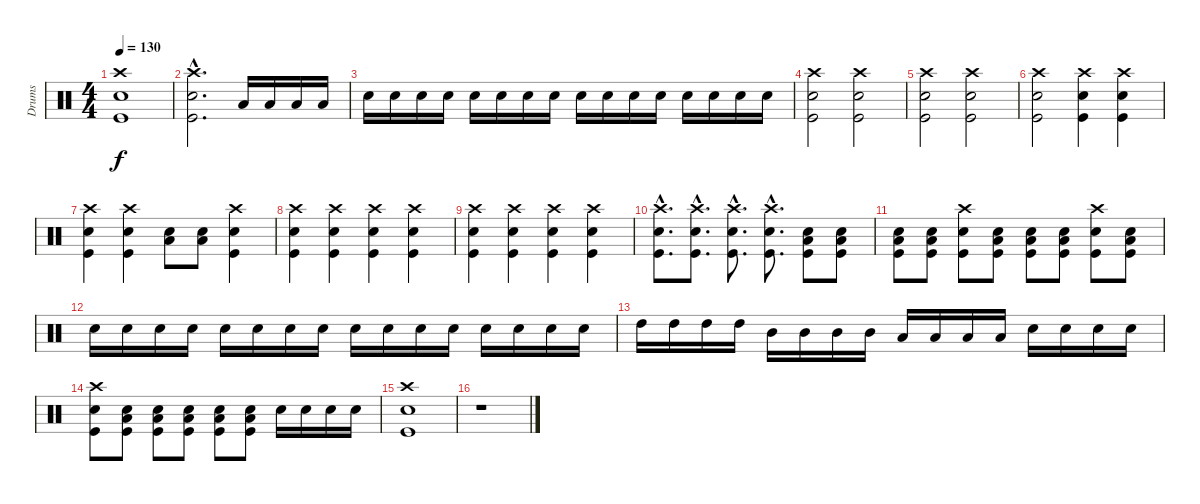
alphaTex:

\track ("Drums" "Drums") {instrument percussion}
\staff {score}
\articulation defaults
\ts (4 4)
\tempo 130
\clef neutral
\ks c
("Crash high (hit)" "Snare (hit) 2" "Kick (hit)").1{dy f} |
("Crash high (hit)"{hac} "Snare (hit) 2"{hac} "Kick (hit)"{hac}).2{d} "Low Tom (hit)".16 "Low Tom (hit)".16 "Low Tom (hit)".16 "Low Tom (hit)".16 |
"Snare (hit) 2".16 "Snare (hit) 2".16 "Snare (hit) 2".16 "Snare (hit) 2".16 "Snare (hit) 2".16 "Snare (hit) 2".16 "Snare (hit) 2".16 "Snare (hit) 2".16 "Snare (hit) 2".16 "Snare (hit) 2".16 "Snare (hit) 2".16 "Snare (hit) 2".16 "Snare (hit) 2".16 "Snare (hit) 2".16 "Snare (hit) 2".16 "Snare (hit) 2".16 |
("Crash high (hit)" "Snare (hit) 2" "Kick (hit)").2 ("Crash high (hit)" "Snare (hit) 2" "Kick (hit)").2 |
("Crash high (hit)" "Snare (hit) 2" "Kick (hit)").2 ("Crash high (hit)" "Snare (hit) 2" "Kick (hit)").2 |
("Crash high (hit)" "Snare (hit) 2" "Kick (hit)").2 ("Crash high (hit)" "Snare (hit) 2" "Kick (hit)").4 ("Crash high (hit)" "Snare (hit) 2" "Kick (hit)").4 |
("Crash high (hit)" "Snare (hit) 2" "Kick (hit)").4 ("Crash high (hit)" "Snare (hit) 2" "Kick (hit)").4 ("Low Tom (hit)" "Snare (hit) 2").8 ("Low Tom (hit)" "Snare (hit) 2").8 ("Crash high (hit)" "Snare (hit) 2" "Kick (hit)").4 |
("Crash high (hit)" "Snare (hit) 2" "Kick (hit)").4 ("Crash high (hit)" "Snare (hit) 2" "Kick (hit)").4 ("Crash high (hit)" "Snare (hit) 2" "Kick (hit)").4 ("Crash high (hit)" "Snare (hit) 2" "Kick (hit)").4 |
("Crash high (hit)" "Snare (hit) 2" "Kick (hit)").4 ("Crash high (hit)" "Snare (hit) 2" "Kick (hit)").4 ("Crash high (hit)" "Snare (hit) 2" "Kick (hit)").4 ("Crash high (hit)" "Snare (hit) 2" "Kick (hit)").4 |
("Crash high (hit)"{hac} "Snare (hit) 2"{hac} "Kick (hit)"{hac}).8{d} ("Crash high (hit)"{hac} "Snare (hit) 2"{hac} "Kick (hit)"{hac}).8{d} ("Crash high (hit)"{hac} "Snare (hit) 2"{hac} "Kick (hit)"{hac}).8{d} ("Crash high (hit)"{hac} "Snare (hit) 2"{hac} "Kick (hit)"{hac}).8{d} ("Low Tom (hit)" "Snare (hit) 2" "Kick (hit)").8 ("Low Tom (hit)" "Snare (hit) 2" "Kick (hit)").8 |
("Low Tom (hit)" "Snare (hit) 2" "Kick (hit)").8 ("Low Tom (hit)" "Snare (hit) 2" "Kick (hit)").8 ("Crash high (hit)" "Snare (hit) 2" "Kick (hit)").8 ("Low Tom (hit)" "Snare (hit) 2" "Kick (hit)").8 ("Low Tom (hit)" "Snare (hit) 2" "Kick (hit)").8 ("Low Tom (hit)" "Snare (hit) 2" "Kick (hit)").8 ("Crash high (hit)" "Snare (hit) 2" "Kick (hit)").8 ("Low Tom (hit)" "Snare (hit) 2" "Kick (hit)").8 |
"Snare (hit) 2".16 "Snare (hit) 2".16 "Snare (hit) 2".16 "Snare (hit) 2".16 "Snare (hit) 2".16 "Snare (hit) 2".16 "Snare (hit) 2".16 "Snare (hit) 2".16 "Snare (hit) 2".16 "Snare (hit) 2".16 "Snare (hit) 2".16 "Snare (hit) 2".16 "Snare (hit) 2".16 "Snare (hit) 2".16 "Snare (hit) 2".16 "Snare (hit) 2".16 |
"High Tom (hit)".16 "High Tom (hit)".16 "High Tom (hit)".16 "High Tom (hit)".16 "Mid Tom (hit)".16 "Mid Tom (hit)".16 "Mid Tom (hit)".16 "Mid Tom (hit)".16 "Low Tom (hit)".16 "Low Tom (hit)".16 "Low Tom (hit)".16 "Low Tom (hit)".16 "Snare (hit) 2".16 "Snare (hit) 2".16 "Snare (hit) 2".16 "Snare (hit) 2".16 |
("Crash high (hit)" "Snare (hit) 2" "Kick (hit)").8 ("Low Tom (hit)" "Snare (hit) 2" "Kick (hit)").8 ("Low Tom (hit)" "Snare (hit) 2" "Kick (hit)").8 ("Low Tom (hit)" "Snare (hit) 2" "Kick (hit)").8 ("Low Tom (hit)" "Snare (hit) 2" "Kick (hit)").8 ("Low Tom (hit)" "Snare (hit) 2" "Kick (hit)").8 "Snare (hit) 2".16 "Snare (hit) 2".16 "Snare (hit) 2".16 "Snare (hit) 2".16 |
("Crash high (hit)" "Snare (hit) 2" "Kick (hit)").1 |
r.1
